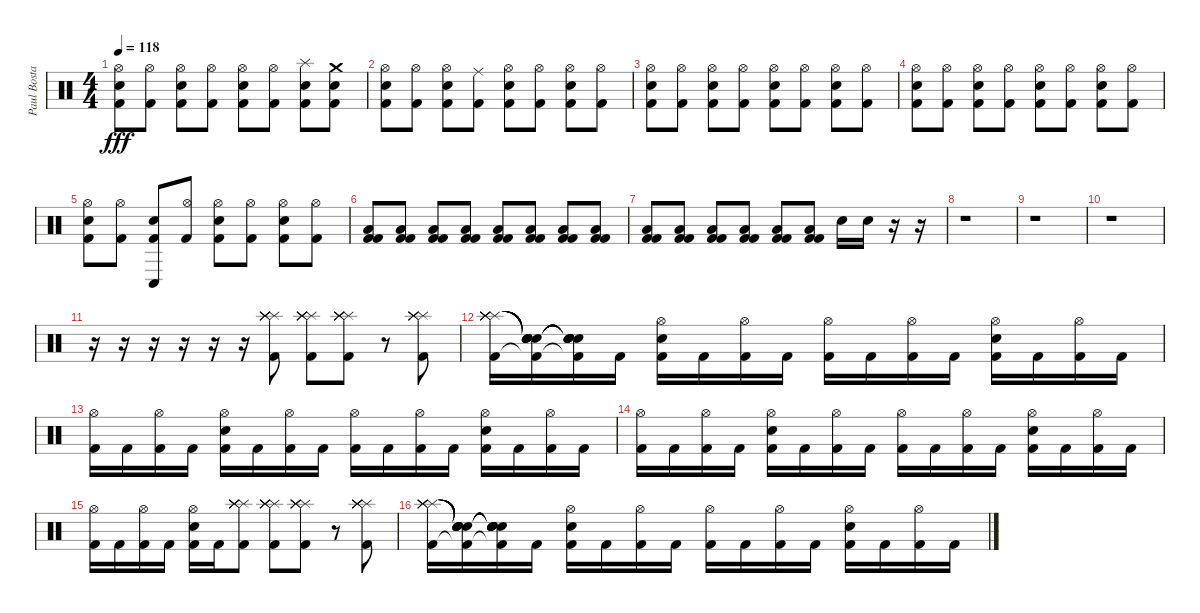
\track ("Paul Bostaph" "Paul Bosta") {instrument percussion}
\staff {score}
\articulation defaults
\ts (4 4)
\tempo 118
\clef neutral
\ks c
("Hi-Hat (open)" "Electric Snare (hit)" "Kick (hit) 2").8{dy fff} ("Hi-Hat (open)" "Kick (hit) 2").8 ("Hi-Hat (open)" "Electric Snare (hit)" "Kick (hit) 2").8 ("Hi-Hat (open)" "Kick (hit) 2").8 ("Hi-Hat (open)" "Electric Snare (hit)" "Kick (hit) 2").8 ("Hi-Hat (open)" "Kick (hit) 2").8 ("Splash (hit)" "Electric Snare (hit)" "Kick (hit) 2").8 ("Crash medium (hit)" "Electric Snare (hit)" "Kick (hit) 2").8 |
("Hi-Hat (open)" "Electric Snare (hit)" "Kick (hit) 2").8 ("Hi-Hat (open)" "Kick (hit) 2").8 ("Hi-Hat (open)" "Electric Snare (hit)" "Kick (hit) 2").8 ("Ride (middle)" "Kick (hit) 2").8 ("Hi-Hat (open)" "Electric Snare (hit)" "Kick (hit) 2").8 ("Hi-Hat (open)" "Kick (hit) 2").8 ("Hi-Hat (open)" "Electric Snare (hit)" "Kick (hit) 2").8 ("Hi-Hat (open)" "Kick (hit) 2").8 |
("Hi-Hat (open)" "Electric Snare (hit)" "Kick (hit) 2").8 ("Hi-Hat (open)" "Kick (hit) 2").8 ("Hi-Hat (open)" "Electric Snare (hit)" "Kick (hit) 2").8 ("Hi-Hat (open)" "Kick (hit) 2").8 ("Hi-Hat (open)" "Electric Snare (hit)" "Kick (hit) 2").8 ("Hi-Hat (open)" "Kick (hit) 2").8 ("Hi-Hat (open)" "Electric Snare (hit)" "Kick (hit) 2").8 ("Hi-Hat (open)" "Kick (hit) 2").8 |
("Hi-Hat (open)" "Electric Snare (hit)" "Kick (hit) 2").8 ("Hi-Hat (open)" "Kick (hit) 2").8 ("Hi-Hat (open)" "Electric Snare (hit)" "Kick (hit) 2").8 ("Hi-Hat (open)" "Kick (hit) 2").8 ("Hi-Hat (open)" "Electric Snare (hit)" "Kick (hit) 2").8 ("Hi-Hat (open)" "Kick (hit) 2").8 ("Hi-Hat (open)" "Electric Snare (hit)" "Kick (hit) 2").8 ("Hi-Hat (open)" "Kick (hit) 2").8 |
("Hi-Hat (open)" "Electric Snare (hit)" "Kick (hit) 2").8 ("Hi-Hat (open)" "Kick (hit) 2").8 ("Conga low (hit)" "Electric Snare (hit)" "Kick (hit) 2").8 ("Hi-Hat (open)" "Kick (hit) 2").8 ("Hi-Hat (open)" "Electric Snare (hit)" "Kick (hit) 2").8 ("Hi-Hat (open)" "Kick (hit) 2").8 ("Hi-Hat (open)" "Electric Snare (hit)" "Kick (hit) 2").8 ("Hi-Hat (open)" "Kick (hit) 2").8 |
("Low Floor Tom (hit)" "Kick (hit) 2" "Kick (hit) 2").8 ("Low Floor Tom (hit)" "Kick (hit) 2" "Kick (hit) 2").8 ("Low Floor Tom (hit)" "Kick (hit) 2" "Kick (hit) 2").8 ("Low Floor Tom (hit)" "Kick (hit) 2" "Kick (hit) 2").8 ("Low Floor Tom (hit)" "Kick (hit) 2" "Kick (hit) 2").8 ("Low Floor Tom (hit)" "Kick (hit) 2" "Kick (hit) 2").8 ("Low Floor Tom (hit)" "Kick (hit) 2" "Kick (hit) 2").8 ("Low Floor Tom (hit)" "Kick (hit) 2" "Kick (hit) 2").8 |
("Low Floor Tom (hit)" "Kick (hit) 2" "Kick (hit) 2").8 ("Low Floor Tom (hit)" "Kick (hit) 2" "Kick (hit) 2").8 ("Low Floor Tom (hit)" "Kick (hit) 2" "Kick (hit) 2").8 ("Low Floor Tom (hit)" "Kick (hit) 2" "Kick (hit) 2").8 ("Low Floor Tom (hit)" "Kick (hit) 2" "Kick (hit) 2").8 ("Low Floor Tom (hit)" "Kick (hit) 2" "Kick (hit) 2").8 "Electric Snare (hit)".16 "Electric Snare (hit)".16 r.16 r.16 |
r.1{volume 13} |
r.1 |
r.1 |
r.16 r.16 r.16 r.16 r.16 r.16 ("Splash (hit)" "Splash (hit)" "Splash (hit)" "Splash (hit)" "Splash (hit)" "Kick (hit) 2").8 ("Splash (hit)" "Splash (hit)" "Splash (hit)" "Splash (hit)" "Splash (hit)" "Kick (hit) 2").8 ("Splash (hit)" "Splash (hit)" "Splash (hit)" "Splash (hit)" "Splash (hit)" "Kick (hit) 2").8 r.8 ("Splash (hit)" "Splash (hit)" "Splash (hit)" "Splash (hit)" "Splash (hit)" "Kick (hit) 2").8 |
("Splash (hit)" "Splash (hit)" "Splash (hit)" "Splash (hit)" "Splash (hit)" "Kick (hit) 2").16 ("Snare (hit)"{t} "Snare (hit)"{t} "Snare (hit)"{t} "Snare (hit)"{t} "Snare (hit)"{t} "Kick (hit) 2"{t}).16 ("Snare (hit)"{t} "Snare (hit)"{t} "Snare (hit)"{t} "Snare (hit)"{t} "Snare (hit)"{t} "Kick (hit) 2"{t}).16 "Kick (hit) 2".16 ("Hi-Hat (open)" "Snare (hit) 2" "Kick (hit) 2").16 "Kick (hit) 2".16 ("Hi-Hat (open)" "Kick (hit) 2").16 "Kick (hit) 2".16 ("Hi-Hat (open)" "Kick (hit) 2").16 "Kick (hit) 2".16 ("Hi-Hat (open)" "Kick (hit) 2").16 "Kick (hit) 2".16 ("Hi-Hat (open)" "Snare (hit) 2" "Kick (hit) 2").16 "Kick (hit) 2".16 ("Hi-Hat (open)" "Kick (hit) 2").16 "Kick (hit) 2".16 |
("Hi-Hat (open)" "Kick (hit) 2").16 "Kick (hit) 2".16 ("Hi-Hat (open)" "Kick (hit) 2").16 "Kick (hit) 2".16 ("Hi-Hat (open)" "Snare (hit) 2" "Kick (hit) 2").16 "Kick (hit) 2".16 ("Hi-Hat (open)" "Kick (hit) 2").16 "Kick (hit) 2".16 ("Hi-Hat (open)" "Kick (hit) 2").16 "Kick (hit) 2".16 ("Hi-Hat (open)" "Kick (hit) 2").16 "Kick (hit) 2".16 ("Hi-Hat (open)" "Snare (hit) 2" "Kick (hit) 2").16 "Kick (hit) 2".16 ("Hi-Hat (open)" "Kick (hit) 2").16 "Kick (hit) 2".16 |
("Hi-Hat (open)" "Kick (hit) 2").16 "Kick (hit) 2".16 ("Hi-Hat (open)" "Kick (hit) 2").16 "Kick (hit) 2".16 ("Hi-Hat (open)" "Snare (hit) 2" "Kick (hit) 2").16 "Kick (hit) 2".16 ("Hi-Hat (open)" "Kick (hit) 2").16 "Kick (hit) 2".16 ("Hi-Hat (open)" "Kick (hit) 2").16 "Kick (hit) 2".16 ("Hi-Hat (open)" "Kick (hit) 2").16 "Kick (hit) 2".16 ("Hi-Hat (open)" "Snare (hit) 2" "Kick (hit) 2").16 "Kick (hit) 2".16 ("Hi-Hat (open)" "Kick (hit) 2").16 "Kick (hit) 2".16 |
("Hi-Hat (open)" "Kick (hit) 2").16 "Kick (hit) 2".16 ("Hi-Hat (open)" "Kick (hit) 2").16 "Kick (hit) 2".16 ("Hi-Hat (open)" "Snare (hit) 2" "Kick (hit) 2").16 "Kick (hit) 2".16 ("Splash (hit)" "Splash (hit)" "Splash (hit)" "Splash (hit)" "Splash (hit)" "Kick (hit) 2").8 ("Splash (hit)" "Splash (hit)" "Splash (hit)" "Splash (hit)" "Splash (hit)" "Kick (hit) 2").8 ("Splash (hit)" "Splash (hit)" "Splash (hit)" "Splash (hit)" "Splash (hit)" "Kick (hit) 2").8 r.8 ("Splash (hit)" "Splash (hit)" "Splash (hit)" "Splash (hit)" "Splash (hit)" "Kick (hit) 2").8 |
("Splash (hit)" "Splash (hit)" "Splash (hit)" "Splash (hit)" "Splash (hit)" "Kick (hit) 2").16 ("Snare (hit)"{t} "Snare (hit)"{t} "Snare (hit)"{t} "Snare (hit)"{t} "Snare (hit)"{t} "Kick (hit) 2"{t}).16 ("Snare (hit)"{t} "Snare (hit)"{t} "Snare (hit)"{t} "Snare (hit)"{t} "Snare (hit)"{t} "Kick (hit) 2"{t}).16 "Kick (hit) 2".16 ("Hi-Hat (open)" "Snare (hit) 2" "Kick (hit) 2").16 "Kick (hit) 2".16 ("Hi-Hat (open)" "Kick (hit) 2").16 "Kick (hit) 2".16 ("Hi-Hat (open)" "Kick (hit) 2").16 "Kick (hit) 2".16 ("Hi-Hat (open)" "Kick (hit) 2").16 "Kick (hit) 2".16 ("Hi-Hat (open)" "Snare (hit) 2" "Kick (hit) 2").16 "Kick (hit) 2".16 ("Hi-Hat (open)" "Kick (hit) 2").16 "Kick (hit) 2".16
